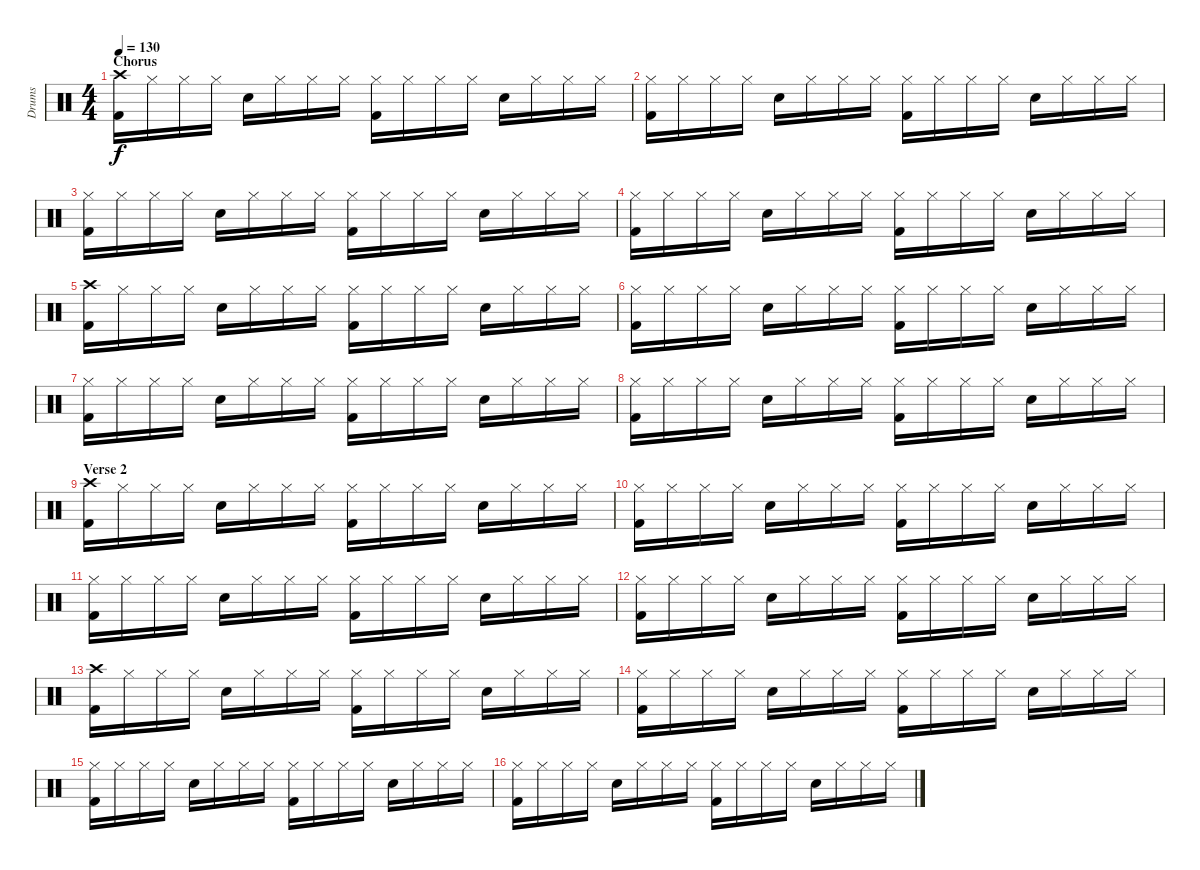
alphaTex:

\track ("Drums" "Drums") {instrument percussion}
\staff {score}
\articulation defaults
\ts (4 4)
\section ("" "Chorus")
\tempo 130
\clef neutral
\ks c
("Crash high (hit)" "Kick (hit) 2").16{dy f} "Hi-Hat (closed)".16 "Hi-Hat (closed)".16 "Hi-Hat (closed)".16 "Electric Snare (hit)".16 "Hi-Hat (closed)".16 "Hi-Hat (closed)".16 "Hi-Hat (closed)".16 ("Hi-Hat (closed)" "Kick (hit) 2").16 "Hi-Hat (closed)".16 "Hi-Hat (closed)".16 "Hi-Hat (closed)".16 "Electric Snare (hit)".16 "Hi-Hat (closed)".16 "Hi-Hat (closed)".16 "Hi-Hat (closed)".16 |
("Hi-Hat (closed)" "Kick (hit) 2").16 "Hi-Hat (closed)".16 "Hi-Hat (closed)".16 "Hi-Hat (closed)".16 "Electric Snare (hit)".16 "Hi-Hat (closed)".16 "Hi-Hat (closed)".16 "Hi-Hat (closed)".16 ("Hi-Hat (closed)" "Kick (hit) 2").16 "Hi-Hat (closed)".16 "Hi-Hat (closed)".16 "Hi-Hat (closed)".16 "Electric Snare (hit)".16 "Hi-Hat (closed)".16 "Hi-Hat (closed)".16 "Hi-Hat (closed)".16 |
("Hi-Hat (closed)" "Kick (hit) 2").16 "Hi-Hat (closed)".16 "Hi-Hat (closed)".16 "Hi-Hat (closed)".16 "Electric Snare (hit)".16 "Hi-Hat (closed)".16 "Hi-Hat (closed)".16 "Hi-Hat (closed)".16 ("Hi-Hat (closed)" "Kick (hit) 2").16 "Hi-Hat (closed)".16 "Hi-Hat (closed)".16 "Hi-Hat (closed)".16 "Electric Snare (hit)".16 "Hi-Hat (closed)".16 "Hi-Hat (closed)".16 "Hi-Hat (closed)".16 |
("Hi-Hat (closed)" "Kick (hit) 2").16 "Hi-Hat (closed)".16 "Hi-Hat (closed)".16 "Hi-Hat (closed)".16 "Electric Snare (hit)".16 "Hi-Hat (closed)".16 "Hi-Hat (closed)".16 "Hi-Hat (closed)".16 ("Hi-Hat (closed)" "Kick (hit) 2").16 "Hi-Hat (closed)".16 "Hi-Hat (closed)".16 "Hi-Hat (closed)".16 "Electric Snare (hit)".16 "Hi-Hat (closed)".16 "Hi-Hat (closed)".16 "Hi-Hat (closed)".16 |
("Crash high (hit)" "Kick (hit) 2").16 "Hi-Hat (closed)".16 "Hi-Hat (closed)".16 "Hi-Hat (closed)".16 "Electric Snare (hit)".16 "Hi-Hat (closed)".16 "Hi-Hat (closed)".16 "Hi-Hat (closed)".16 ("Hi-Hat (closed)" "Kick (hit) 2").16 "Hi-Hat (closed)".16 "Hi-Hat (closed)".16 "Hi-Hat (closed)".16 "Electric Snare (hit)".16 "Hi-Hat (closed)".16 "Hi-Hat (closed)".16 "Hi-Hat (closed)".16 |
("Hi-Hat (closed)" "Kick (hit) 2").16 "Hi-Hat (closed)".16 "Hi-Hat (closed)".16 "Hi-Hat (closed)".16 "Electric Snare (hit)".16 "Hi-Hat (closed)".16 "Hi-Hat (closed)".16 "Hi-Hat (closed)".16 ("Hi-Hat (closed)" "Kick (hit) 2").16 "Hi-Hat (closed)".16 "Hi-Hat (closed)".16 "Hi-Hat (closed)".16 "Electric Snare (hit)".16 "Hi-Hat (closed)".16 "Hi-Hat (closed)".16 "Hi-Hat (closed)".16 |
("Hi-Hat (closed)" "Kick (hit) 2").16 "Hi-Hat (closed)".16 "Hi-Hat (closed)".16 "Hi-Hat (closed)".16 "Electric Snare (hit)".16 "Hi-Hat (closed)".16 "Hi-Hat (closed)".16 "Hi-Hat (closed)".16 ("Hi-Hat (closed)" "Kick (hit) 2").16 "Hi-Hat (closed)".16 "Hi-Hat (closed)".16 "Hi-Hat (closed)".16 "Electric Snare (hit)".16 "Hi-Hat (closed)".16 "Hi-Hat (closed)".16 "Hi-Hat (closed)".16 |
("Hi-Hat (closed)" "Kick (hit) 2").16 "Hi-Hat (closed)".16 "Hi-Hat (closed)".16 "Hi-Hat (closed)".16 "Electric Snare (hit)".16 "Hi-Hat (closed)".16 "Hi-Hat (closed)".16 "Hi-Hat (closed)".16 ("Hi-Hat (closed)" "Kick (hit) 2").16 "Hi-Hat (closed)".16 "Hi-Hat (closed)".16 "Hi-Hat (closed)".16 "Electric Snare (hit)".16 "Hi-Hat (closed)".16 "Hi-Hat (closed)".16 "Hi-Hat (closed)".16 |
\section ("" "Verse 2")
("Crash high (hit)" "Kick (hit) 2").16 "Hi-Hat (closed)".16 "Hi-Hat (closed)".16 "Hi-Hat (closed)".16 "Electric Snare (hit)".16 "Hi-Hat (closed)".16 "Hi-Hat (closed)".16 "Hi-Hat (closed)".16 ("Hi-Hat (closed)" "Kick (hit) 2").16 "Hi-Hat (closed)".16 "Hi-Hat (closed)".16 "Hi-Hat (closed)".16 "Electric Snare (hit)".16 "Hi-Hat (closed)".16 "Hi-Hat (closed)".16 "Hi-Hat (closed)".16 |
("Hi-Hat (closed)" "Kick (hit) 2").16 "Hi-Hat (closed)".16 "Hi-Hat (closed)".16 "Hi-Hat (closed)".16 "Electric Snare (hit)".16 "Hi-Hat (closed)".16 "Hi-Hat (closed)".16 "Hi-Hat (closed)".16 ("Hi-Hat (closed)" "Kick (hit) 2").16 "Hi-Hat (closed)".16 "Hi-Hat (closed)".16 "Hi-Hat (closed)".16 "Electric Snare (hit)".16 "Hi-Hat (closed)".16 "Hi-Hat (closed)".16 "Hi-Hat (closed)".16 |
("Hi-Hat (closed)" "Kick (hit) 2").16 "Hi-Hat (closed)".16 "Hi-Hat (closed)".16 "Hi-Hat (closed)".16 "Electric Snare (hit)".16 "Hi-Hat (closed)".16 "Hi-Hat (closed)".16 "Hi-Hat (closed)".16 ("Hi-Hat (closed)" "Kick (hit) 2").16 "Hi-Hat (closed)".16 "Hi-Hat (closed)".16 "Hi-Hat (closed)".16 "Electric Snare (hit)".16 "Hi-Hat (closed)".16 "Hi-Hat (closed)".16 "Hi-Hat (closed)".16 |
("Hi-Hat (closed)" "Kick (hit) 2").16 "Hi-Hat (closed)".16 "Hi-Hat (closed)".16 "Hi-Hat (closed)".16 "Electric Snare (hit)".16 "Hi-Hat (closed)".16 "Hi-Hat (closed)".16 "Hi-Hat (closed)".16 ("Hi-Hat (closed)" "Kick (hit) 2").16 "Hi-Hat (closed)".16 "Hi-Hat (closed)".16 "Hi-Hat (closed)".16 "Electric Snare (hit)".16 "Hi-Hat (closed)".16 "Hi-Hat (closed)".16 "Hi-Hat (closed)".16 |
("Crash high (hit)" "Kick (hit) 2").16 "Hi-Hat (closed)".16 "Hi-Hat (closed)".16 "Hi-Hat (closed)".16 "Electric Snare (hit)".16 "Hi-Hat (closed)".16 "Hi-Hat (closed)".16 "Hi-Hat (closed)".16 ("Hi-Hat (closed)" "Kick (hit) 2").16 "Hi-Hat (closed)".16 "Hi-Hat (closed)".16 "Hi-Hat (closed)".16 "Electric Snare (hit)".16 "Hi-Hat (closed)".16 "Hi-Hat (closed)".16 "Hi-Hat (closed)".16 |
("Hi-Hat (closed)" "Kick (hit) 2").16 "Hi-Hat (closed)".16 "Hi-Hat (closed)".16 "Hi-Hat (closed)".16 "Electric Snare (hit)".16 "Hi-Hat (closed)".16 "Hi-Hat (closed)".16 "Hi-Hat (closed)".16 ("Hi-Hat (closed)" "Kick (hit) 2").16 "Hi-Hat (closed)".16 "Hi-Hat (closed)".16 "Hi-Hat (closed)".16 "Electric Snare (hit)".16 "Hi-Hat (closed)".16 "Hi-Hat (closed)".16 "Hi-Hat (closed)".16 |
("Hi-Hat (closed)" "Kick (hit) 2").16 "Hi-Hat (closed)".16 "Hi-Hat (closed)".16 "Hi-Hat (closed)".16 "Electric Snare (hit)".16 "Hi-Hat (closed)".16 "Hi-Hat (closed)".16 "Hi-Hat (closed)".16 ("Hi-Hat (closed)" "Kick (hit) 2").16 "Hi-Hat (closed)".16 "Hi-Hat (closed)".16 "Hi-Hat (closed)".16 "Electric Snare (hit)".16 "Hi-Hat (closed)".16 "Hi-Hat (closed)".16 "Hi-Hat (closed)".16 |
("Hi-Hat (closed)" "Kick (hit) 2").16 "Hi-Hat (closed)".16 "Hi-Hat (closed)".16 "Hi-Hat (closed)".16 "Electric Snare (hit)".16 "Hi-Hat (closed)".16 "Hi-Hat (closed)".16 "Hi-Hat (closed)".16 ("Hi-Hat (closed)" "Kick (hit) 2").16 "Hi-Hat (closed)".16 "Hi-Hat (closed)".16 "Hi-Hat (closed)".16 "Electric Snare (hit)".16 "Hi-Hat (closed)".16 "Hi-Hat (closed)".16 "Hi-Hat (closed)".16
